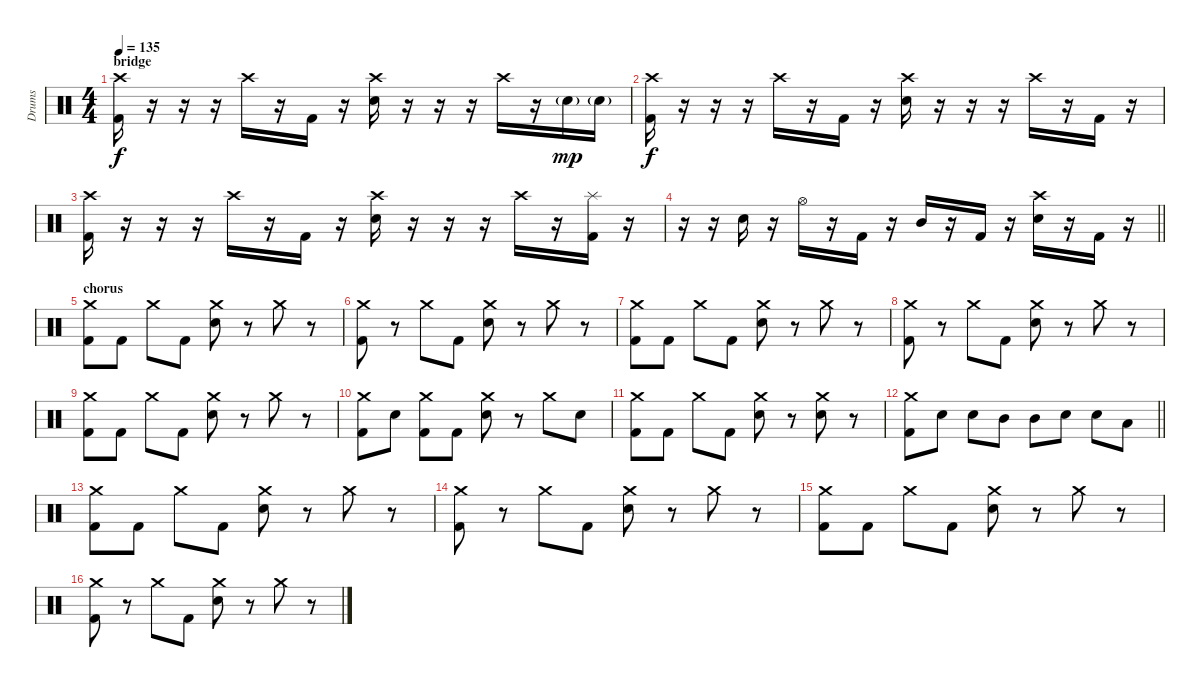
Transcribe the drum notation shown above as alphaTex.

\track ("Drums" "Drums") {instrument percussion}
\staff {score}
\articulation defaults
\ts (4 4)
\section ("" "bridge")
\tempo 135
\clef neutral
\ks c
("Kick (hit) 2" "Crash high (hit)").16{dy f} r.16 r.16 r.16 "Crash high (hit)".16 r.16 "Kick (hit) 2".16 r.16 ("Electric Snare (hit)" "Crash high (hit)").16 r.16 r.16 r.16 "Crash high (hit)".16 r.16 "Electric Snare (hit)"{g}.16{dy mp} "Electric Snare (hit)"{g}.16 |
("Kick (hit) 2" "Crash high (hit)").16{dy f} r.16 r.16 r.16 "Crash high (hit)".16 r.16 "Kick (hit) 2".16 r.16 ("Electric Snare (hit)" "Crash high (hit)").16 r.16 r.16 r.16 "Crash high (hit)".16 r.16 "Kick (hit) 2".16 r.16 |
("Kick (hit) 2" "Crash high (hit)").16 r.16 r.16 r.16 "Crash high (hit)".16 r.16 "Kick (hit) 2".16 r.16 ("Electric Snare (hit)" "Crash high (hit)").16 r.16 r.16 r.16 "Crash high (hit)".16 r.16 ("Kick (hit) 2" "Splash (hit)").16 r.16 |
\barLineRight lightlight
r.16 r.16 "Electric Snare (hit)".16 r.16 "Hi-Hat (open)".16 r.16 "Kick (hit) 2".16 r.16 "Mid Tom (hit)".16 r.16 "Kick (hit) 2".16 r.16 ("Crash high (hit)" "Electric Snare (hit)").16 r.16 "Kick (hit) 2".16 r.16 |
\section ("" "chorus")
("Crash medium (hit)" "Kick (hit) 2").8 "Kick (hit) 2".8 "Crash medium (hit)".8 "Kick (hit) 2".8 ("Crash medium (hit)" "Electric Snare (hit)").8 r.8 "Crash medium (hit)".8 r.8 |
("Kick (hit) 2" "Crash medium (hit)").8 r.8 "Crash medium (hit)".8 "Kick (hit) 2".8 ("Electric Snare (hit)" "Crash medium (hit)").8 r.8 "Crash medium (hit)".8 r.8 |
("Crash medium (hit)" "Kick (hit) 2").8 "Kick (hit) 2".8 "Crash medium (hit)".8 "Kick (hit) 2".8 ("Crash medium (hit)" "Electric Snare (hit)").8 r.8 "Crash medium (hit)".8 r.8 |
("Kick (hit) 2" "Crash medium (hit)").8 r.8 "Crash medium (hit)".8 "Kick (hit) 2".8 ("Electric Snare (hit)" "Crash medium (hit)").8 r.8 "Crash medium (hit)".8 r.8 |
("Crash medium (hit)" "Kick (hit) 2").8 "Kick (hit) 2".8 "Crash medium (hit)".8 "Kick (hit) 2".8 ("Crash medium (hit)" "Electric Snare (hit)").8 r.8 "Crash medium (hit)".8 r.8 |
("Kick (hit) 2" "Crash medium (hit)").8 "Electric Snare (hit)".8 ("Crash medium (hit)" "Kick (hit) 2").8 "Kick (hit) 2".8 ("Electric Snare (hit)" "Crash medium (hit)").8 r.8 "Crash medium (hit)".8 "Electric Snare (hit)".8 |
("Crash medium (hit)" "Kick (hit) 2").8 "Kick (hit) 2".8 "Crash medium (hit)".8 "Kick (hit) 2".8 ("Crash medium (hit)" "Electric Snare (hit)").8 r.8 ("Crash medium (hit)" "Electric Snare (hit)").8 r.8 |
\barLineRight lightlight
("Kick (hit) 2" "Crash medium (hit)").8 "Electric Snare (hit)".8 "Electric Snare (hit)".8 "Mid Tom (hit)".8 "Mid Tom (hit)".8 "Electric Snare (hit)".8 "Electric Snare (hit)".8 "Low Tom (hit)".8 |
\section ("" "")
("Crash medium (hit)" "Kick (hit) 2").8 "Kick (hit) 2".8 "Crash medium (hit)".8 "Kick (hit) 2".8 ("Crash medium (hit)" "Electric Snare (hit)").8 r.8 "Crash medium (hit)".8 r.8 |
("Kick (hit) 2" "Crash medium (hit)").8 r.8 "Crash medium (hit)".8 "Kick (hit) 2".8 ("Electric Snare (hit)" "Crash medium (hit)").8 r.8 "Crash medium (hit)".8 r.8 |
("Crash medium (hit)" "Kick (hit) 2").8 "Kick (hit) 2".8 "Crash medium (hit)".8 "Kick (hit) 2".8 ("Crash medium (hit)" "Electric Snare (hit)").8 r.8 "Crash medium (hit)".8 r.8 |
("Kick (hit) 2" "Crash medium (hit)").8 r.8 "Crash medium (hit)".8 "Kick (hit) 2".8 ("Electric Snare (hit)" "Crash medium (hit)").8 r.8 "Crash medium (hit)".8 r.8
